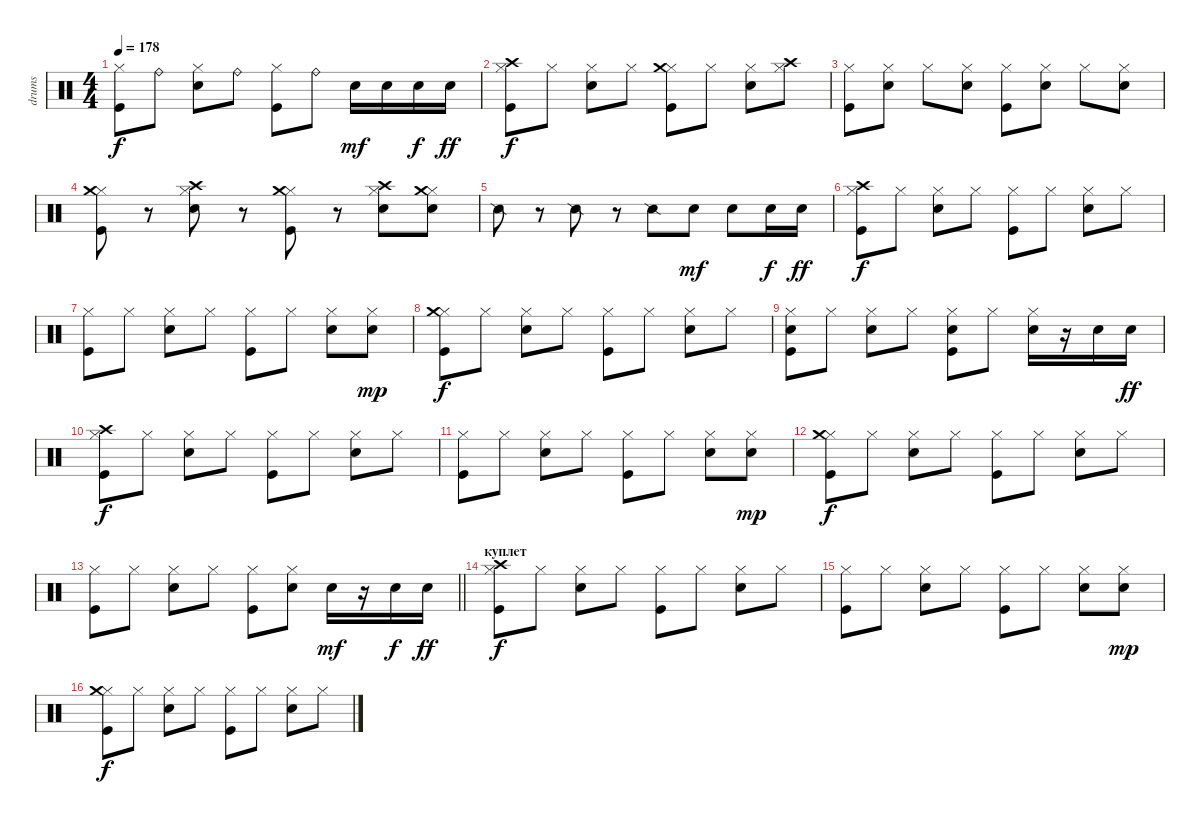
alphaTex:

\track ("drums" "drums") {instrument percussion}
\staff {score}
\articulation defaults
\ts (4 4)
\tempo 178
\clef neutral
\ks c
("Hi-Hat (closed)" "Kick (hit)").8{dy f} "Ride (bell)".8 ("Hi-Hat (closed)" "Electric Snare (hit)").8 "Ride (bell)".8 ("Hi-Hat (closed)" "Kick (hit)").8 "Ride (bell)".8 "Electric Snare (hit)".16{dy mf} "Electric Snare (hit)".16 "Electric Snare (hit)".16{dy f} "Electric Snare (hit)".16{dy ff} |
("Hi-Hat (closed)" "Crash high (hit)" "Kick (hit)").8{dy f} "Hi-Hat (closed)".8 ("Hi-Hat (closed)" "Electric Snare (hit)").8 "Hi-Hat (closed)".8 ("Hi-Hat (closed)" "Crash medium (hit)" "Kick (hit)").8 "Hi-Hat (closed)".8 ("Hi-Hat (closed)" "Electric Snare (hit)").8 ("Hi-Hat (closed)" "Crash high (hit)").8 |
("Hi-Hat (closed)" "Kick (hit)").8 ("Hi-Hat (closed)" "Electric Snare (hit)").8 "Hi-Hat (closed)".8 ("Hi-Hat (closed)" "Electric Snare (hit)").8 ("Hi-Hat (closed)" "Kick (hit)").8 ("Hi-Hat (closed)" "Electric Snare (hit)").8 "Hi-Hat (closed)".8 ("Hi-Hat (closed)" "Electric Snare (hit)").8 |
("Hi-Hat (closed)" "Crash medium (hit)" "Kick (hit)").8 r.8 ("Hi-Hat (closed)" "Crash high (hit)" "Electric Snare (hit)").8 r.8 ("Hi-Hat (closed)" "Crash medium (hit)" "Kick (hit)").8 r.8 ("Hi-Hat (closed)" "Crash high (hit)" "Electric Snare (hit)").8 ("Hi-Hat (closed)" "Crash medium (hit)" "Electric Snare (hit)").8 |
"Snare (side stick) 2".8 r.8 "Snare (side stick) 2".8 r.8 "Snare (side stick) 2".8 "Electric Snare (hit)".8{dy mf} "Electric Snare (hit)".8 "Electric Snare (hit)".16{dy f} "Electric Snare (hit)".16{dy ff} |
("Hi-Hat (closed)" "Crash high (hit)" "Kick (hit)").8{dy f} "Hi-Hat (closed)".8 ("Hi-Hat (closed)" "Electric Snare (hit)").8 "Hi-Hat (closed)".8 ("Hi-Hat (closed)" "Kick (hit)").8 "Hi-Hat (closed)".8 ("Hi-Hat (closed)" "Electric Snare (hit)").8 "Hi-Hat (closed)".8 |
("Hi-Hat (closed)" "Kick (hit)").8 "Hi-Hat (closed)".8 ("Hi-Hat (closed)" "Electric Snare (hit)").8 "Hi-Hat (closed)".8 ("Hi-Hat (closed)" "Kick (hit)").8 "Hi-Hat (closed)".8 ("Hi-Hat (closed)" "Electric Snare (hit)").8 ("Hi-Hat (closed)" "Electric Snare (hit)").8{dy mp} |
("Hi-Hat (closed)" "Crash medium (hit)" "Kick (hit)").8{dy f} "Hi-Hat (closed)".8 ("Hi-Hat (closed)" "Electric Snare (hit)").8 "Hi-Hat (closed)".8 ("Hi-Hat (closed)" "Kick (hit)").8 "Hi-Hat (closed)".8 ("Hi-Hat (closed)" "Electric Snare (hit)").8 "Hi-Hat (closed)".8 |
("Hi-Hat (closed)" "Electric Snare (hit)" "Kick (hit)").8 "Hi-Hat (closed)".8 ("Hi-Hat (closed)" "Electric Snare (hit)").8 "Hi-Hat (closed)".8 ("Hi-Hat (closed)" "Electric Snare (hit)" "Kick (hit)").8 "Hi-Hat (closed)".8 ("Hi-Hat (closed)" "Electric Snare (hit)").16 r.16 "Electric Snare (hit)".16 "Electric Snare (hit)".16{dy ff} |
("Hi-Hat (closed)" "Crash high (hit)" "Kick (hit)").8{dy f} "Hi-Hat (closed)".8 ("Hi-Hat (closed)" "Electric Snare (hit)").8 "Hi-Hat (closed)".8 ("Hi-Hat (closed)" "Kick (hit)").8 "Hi-Hat (closed)".8 ("Hi-Hat (closed)" "Electric Snare (hit)").8 "Hi-Hat (closed)".8 |
("Hi-Hat (closed)" "Kick (hit)").8 "Hi-Hat (closed)".8 ("Hi-Hat (closed)" "Electric Snare (hit)").8 "Hi-Hat (closed)".8 ("Hi-Hat (closed)" "Kick (hit)").8 "Hi-Hat (closed)".8 ("Hi-Hat (closed)" "Electric Snare (hit)").8 ("Hi-Hat (closed)" "Electric Snare (hit)").8{dy mp} |
("Hi-Hat (closed)" "Crash medium (hit)" "Kick (hit)").8{dy f} "Hi-Hat (closed)".8 ("Hi-Hat (closed)" "Electric Snare (hit)").8 "Hi-Hat (closed)".8 ("Hi-Hat (closed)" "Kick (hit)").8 "Hi-Hat (closed)".8 ("Hi-Hat (closed)" "Electric Snare (hit)").8 "Hi-Hat (closed)".8 |
\barLineRight lightlight
("Hi-Hat (closed)" "Kick (hit)").8 "Hi-Hat (closed)".8 ("Hi-Hat (closed)" "Electric Snare (hit)").8 "Hi-Hat (closed)".8 ("Hi-Hat (closed)" "Kick (hit)").8 ("Hi-Hat (closed)" "Electric Snare (hit)").8 "Electric Snare (hit)".16{dy mf} r.16 "Electric Snare (hit)".16{dy f} "Electric Snare (hit)".16{dy ff} |
\section ("" "куплет")
("Hi-Hat (closed)" "Crash high (hit)" "Kick (hit)").8{dy f} "Hi-Hat (closed)".8 ("Hi-Hat (closed)" "Electric Snare (hit)").8 "Hi-Hat (closed)".8 ("Hi-Hat (closed)" "Kick (hit)").8 "Hi-Hat (closed)".8 ("Hi-Hat (closed)" "Electric Snare (hit)").8 "Hi-Hat (closed)".8 |
("Hi-Hat (closed)" "Kick (hit)").8 "Hi-Hat (closed)".8 ("Hi-Hat (closed)" "Electric Snare (hit)").8 "Hi-Hat (closed)".8 ("Hi-Hat (closed)" "Kick (hit)").8 "Hi-Hat (closed)".8 ("Hi-Hat (closed)" "Electric Snare (hit)").8 ("Hi-Hat (closed)" "Electric Snare (hit)").8{dy mp} |
("Hi-Hat (closed)" "Crash medium (hit)" "Kick (hit)").8{dy f} "Hi-Hat (closed)".8 ("Hi-Hat (closed)" "Electric Snare (hit)").8 "Hi-Hat (closed)".8 ("Hi-Hat (closed)" "Kick (hit)").8 "Hi-Hat (closed)".8 ("Hi-Hat (closed)" "Electric Snare (hit)").8 "Hi-Hat (closed)".8
